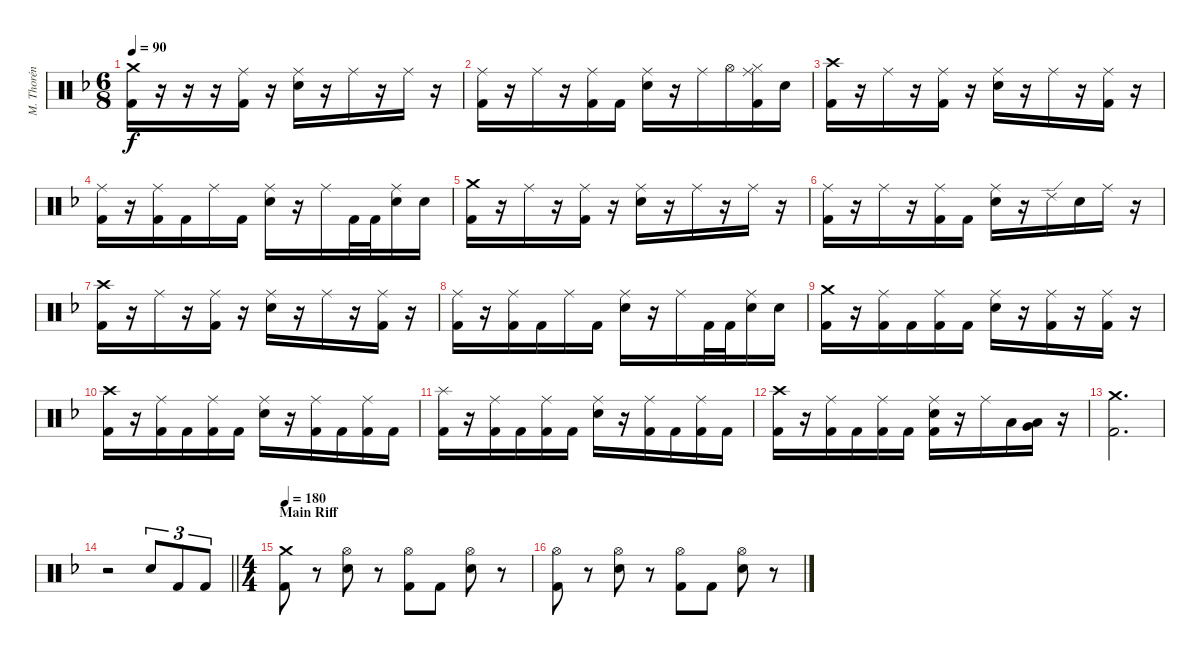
\track ("M. Thorén (Drums)" "M. Thorén ") {instrument percussion}
\staff {score}
\articulation defaults
\ts (6 8)
\tempo 90
\clef neutral
\ks dminor
("Crash medium (hit)" "Kick (hit) 2").16{dy f} r.16 r.16 r.16 ("Ride (middle)" "Kick (hit) 2").16 r.16 ("Ride (middle)" "Electric Snare (hit)").16 r.16 "Ride (middle)".16 r.16 "Ride (middle)".16 r.16 |
("Ride (middle)" "Kick (hit) 2").16 r.16 "Ride (middle)".16 r.16 ("Ride (middle)" "Kick (hit) 2").16 "Kick (hit) 2".16 ("Ride (middle)" "Electric Snare (hit)").16 r.16 "Ride (middle)".16 "Hi-Hat (open)".16 ("Ride (middle)" "Hi-Hat (closed)" "Kick (hit) 2").16 "Electric Snare (hit)".16 |
("Crash high (hit)" "Kick (hit) 2").16 r.16 "Ride (middle)".16 r.16 ("Ride (middle)" "Kick (hit) 2").16 r.16 ("Ride (middle)" "Electric Snare (hit)").16 r.16 "Ride (middle)".16 r.16 ("Ride (middle)" "Kick (hit) 2").16 r.16 |
("Ride (middle)" "Kick (hit) 2").16 r.16 ("Ride (middle)" "Kick (hit) 2").16 "Kick (hit) 2".16 "Ride (middle)".16 "Kick (hit) 2".16 ("Ride (middle)" "Electric Snare (hit)").16 r.16 "Ride (middle)".16 "Kick (hit) 2".32 "Kick (hit) 2".32 ("Ride (middle)" "Electric Snare (hit)").16 "Electric Snare (hit)".16 |
("Crash medium (hit)" "Kick (hit) 2").16 r.16 "Ride (middle)".16 r.16 ("Ride (middle)" "Kick (hit) 2").16 r.16 ("Ride (middle)" "Electric Snare (hit)").16 r.16 "Ride (middle)".16 r.16 "Ride (middle)".16 r.16 |
("Ride (middle)" "Kick (hit) 2").16 r.16 "Ride (middle)".16 r.16 ("Ride (middle)" "Kick (hit) 2").16 "Kick (hit) 2".16 ("Ride (middle)" "Electric Snare (hit)").16 r.16 "Ride (edge) 2".16 "Electric Snare (hit)".16 "Ride (middle)".16 r.16 |
("Crash high (hit)" "Kick (hit) 2").16 r.16 "Ride (middle)".16 r.16 ("Ride (middle)" "Kick (hit) 2").16 r.16 ("Ride (middle)" "Electric Snare (hit)").16 r.16 "Ride (middle)".16 r.16 ("Ride (middle)" "Kick (hit) 2").16 r.16 |
("Ride (middle)" "Kick (hit) 2").16 r.16 ("Ride (middle)" "Kick (hit) 2").16 "Kick (hit) 2".16 "Ride (middle)".16 "Kick (hit) 2".16 ("Ride (middle)" "Electric Snare (hit)").16 r.16 "Ride (middle)".16 "Kick (hit) 2".32 "Kick (hit) 2".32 ("Ride (middle)" "Electric Snare (hit)").16 "Electric Snare (hit)".16 |
("Crash medium (hit)" "Kick (hit) 2").16 r.16 ("Ride (middle)" "Kick (hit) 2").16 "Kick (hit) 2".16 ("Ride (middle)" "Kick (hit) 2").16 "Kick (hit) 2".16 ("Ride (middle)" "Electric Snare (hit)").16 r.16 ("Ride (middle)" "Kick (hit) 2").16 r.16 ("Ride (middle)" "Kick (hit) 2").16 r.16 |
("Crash high (hit)" "Kick (hit) 2").16 r.16 ("Ride (middle)" "Kick (hit) 2").16 "Kick (hit) 2".16 ("Ride (middle)" "Kick (hit) 2").16 "Kick (hit) 2".16 ("Ride (middle)" "Electric Snare (hit)").16 r.16 ("Ride (middle)" "Kick (hit) 2").16 "Kick (hit) 2".16 ("Ride (middle)" "Kick (hit) 2").16 "Kick (hit) 2".16 |
("Splash (hit)" "Kick (hit) 2").16 r.16 ("Ride (middle)" "Kick (hit) 2").16 "Kick (hit) 2".16 ("Ride (middle)" "Kick (hit) 2").16 "Kick (hit) 2".16 ("Ride (middle)" "Electric Snare (hit)").16 r.16 ("Ride (middle)" "Kick (hit) 2").16 "Kick (hit) 2".16 ("Ride (middle)" "Kick (hit) 2").16 "Kick (hit) 2".16 |
("Crash high (hit)" "Kick (hit) 2").16 r.16 ("Ride (middle)" "Kick (hit) 2").16 "Kick (hit) 2".16 ("Ride (middle)" "Kick (hit) 2").16 "Kick (hit) 2".16 ("Ride (middle)" "Electric Snare (hit)" "Kick (hit) 2").16 r.16 "Ride (middle)".16 "Low Tom (hit)".16 ("Very Low Tom (hit)" "Low Floor Tom (hit)").16 r.16 |
("Crash medium (hit)" "Kick (hit) 2").2{d} |
\barLineRight lightlight
r.2 "Electric Snare (hit)".8{tu (3 2)} "Kick (hit) 2".8{tu (3 2)} "Kick (hit) 2".8{tu (3 2)} |
\ts (4 4)
\section ("" "Main Riff")
\tempo 180
("Crash medium (hit)" "Kick (hit) 2").8 r.8 ("Hi-Hat (open)" "Electric Snare (hit)").8 r.8 ("Hi-Hat (open)" "Kick (hit) 2").8 "Kick (hit) 2".8 ("Hi-Hat (open)" "Electric Snare (hit)").8 r.8 |
("Hi-Hat (open)" "Kick (hit) 2").8 r.8 ("Hi-Hat (open)" "Electric Snare (hit)").8 r.8 ("Hi-Hat (open)" "Kick (hit) 2").8 "Kick (hit) 2".8 ("Hi-Hat (open)" "Electric Snare (hit)").8 r.8
